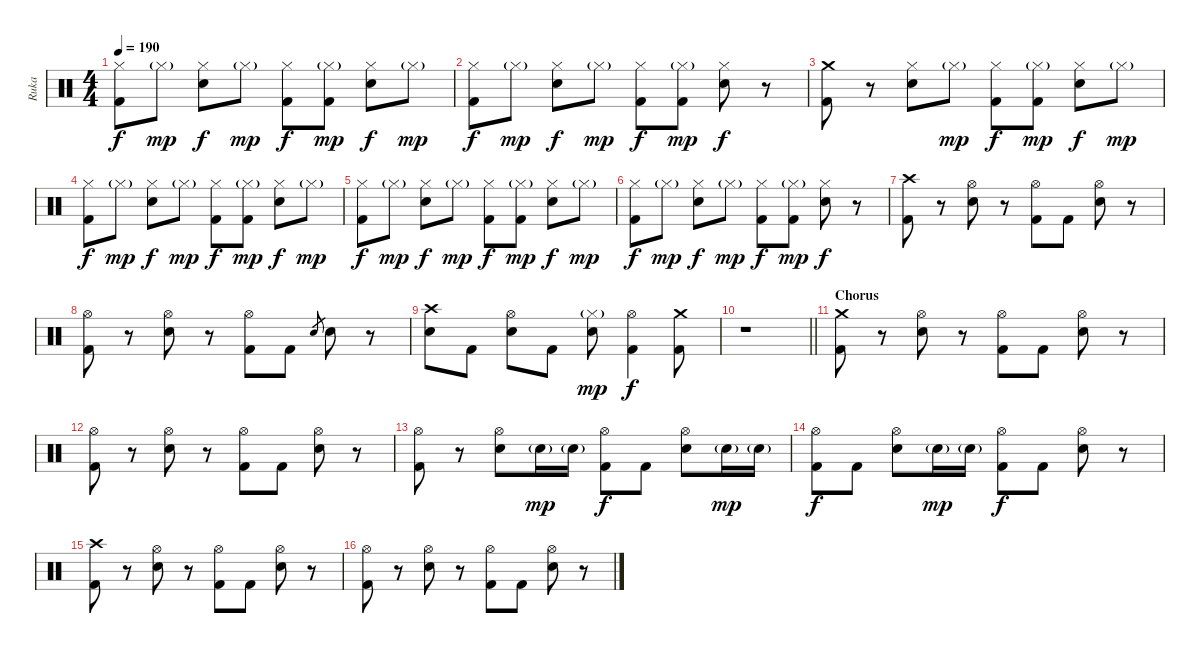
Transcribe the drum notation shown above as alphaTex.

\track ("Ruka " "Ruka ") {instrument percussion}
\staff {score}
\articulation defaults
\ts (4 4)
\tempo 190
\clef neutral
\ks c
("Hi-Hat (closed)" "Kick (hit) 2").8{dy f} "Hi-Hat (closed)"{g}.8{dy mp} ("Hi-Hat (closed)" "Electric Snare (hit)").8{dy f} "Hi-Hat (closed)"{g}.8{dy mp} ("Hi-Hat (closed)" "Kick (hit) 2").8{dy f} ("Hi-Hat (closed)"{g} "Kick (hit) 2").8{dy mp} ("Hi-Hat (closed)" "Electric Snare (hit)").8{dy f} "Hi-Hat (closed)"{g}.8{dy mp} |
("Hi-Hat (closed)" "Kick (hit) 2").8{dy f} "Hi-Hat (closed)"{g}.8{dy mp} ("Hi-Hat (closed)" "Electric Snare (hit)").8{dy f} "Hi-Hat (closed)"{g}.8{dy mp} ("Hi-Hat (closed)" "Kick (hit) 2").8{dy f} ("Hi-Hat (closed)"{g} "Kick (hit) 2").8{dy mp} ("Hi-Hat (closed)" "Electric Snare (hit)").8{dy f} r.8 |
("Crash medium (hit)" "Kick (hit) 2").8 r.8 ("Hi-Hat (closed)" "Electric Snare (hit)").8 "Hi-Hat (closed)"{g}.8{dy mp} ("Hi-Hat (closed)" "Kick (hit) 2").8{dy f} ("Hi-Hat (closed)"{g} "Kick (hit) 2").8{dy mp} ("Hi-Hat (closed)" "Electric Snare (hit)").8{dy f} "Hi-Hat (closed)"{g}.8{dy mp} |
("Hi-Hat (closed)" "Kick (hit) 2").8{dy f} "Hi-Hat (closed)"{g}.8{dy mp} ("Hi-Hat (closed)" "Electric Snare (hit)").8{dy f} "Hi-Hat (closed)"{g}.8{dy mp} ("Hi-Hat (closed)" "Kick (hit) 2").8{dy f} ("Hi-Hat (closed)"{g} "Kick (hit) 2").8{dy mp} ("Hi-Hat (closed)" "Electric Snare (hit)").8{dy f} "Hi-Hat (closed)"{g}.8{dy mp} |
("Hi-Hat (closed)" "Kick (hit) 2").8{dy f} "Hi-Hat (closed)"{g}.8{dy mp} ("Hi-Hat (closed)" "Electric Snare (hit)").8{dy f} "Hi-Hat (closed)"{g}.8{dy mp} ("Hi-Hat (closed)" "Kick (hit) 2").8{dy f} ("Hi-Hat (closed)"{g} "Kick (hit) 2").8{dy mp} ("Hi-Hat (closed)" "Electric Snare (hit)").8{dy f} "Hi-Hat (closed)"{g}.8{dy mp} |
("Hi-Hat (closed)" "Kick (hit) 2").8{dy f} "Hi-Hat (closed)"{g}.8{dy mp} ("Hi-Hat (closed)" "Electric Snare (hit)").8{dy f} "Hi-Hat (closed)"{g}.8{dy mp} ("Hi-Hat (closed)" "Kick (hit) 2").8{dy f} ("Hi-Hat (closed)"{g} "Kick (hit) 2").8{dy mp} ("Hi-Hat (closed)" "Electric Snare (hit)").8{dy f} r.8 |
("Crash high (hit)" "Kick (hit) 2").8 r.8 ("Hi-Hat (open)" "Electric Snare (hit)").8 r.8 ("Hi-Hat (open)" "Kick (hit) 2").8 "Kick (hit) 2".8 ("Hi-Hat (open)" "Electric Snare (hit)").8 r.8 |
("Hi-Hat (open)" "Kick (hit) 2").8 r.8 ("Hi-Hat (open)" "Electric Snare (hit)").8 r.8 ("Hi-Hat (open)" "Kick (hit) 2").8 "Kick (hit) 2".8 "Electric Snare (hit)".8{gr} "Electric Snare (hit)".8 r.8 |
("Crash high (hit)" "Electric Snare (hit)").8 "Kick (hit) 2".8 ("Hi-Hat (open)" "Electric Snare (hit)").8 "Kick (hit) 2".8 ("Hi-Hat (closed)"{g} "Electric Snare (hit)").8{dy mp} ("Hi-Hat (open)" "Kick (hit) 2").4{dy f} ("Crash medium (hit)" "Kick (hit) 2").8 |
\barLineRight lightlight
r.1 |
\section ("" "Chorus")
("Crash medium (hit)" "Kick (hit) 2").8 r.8 ("Hi-Hat (open)" "Electric Snare (hit)").8 r.8 ("Hi-Hat (open)" "Kick (hit) 2").8 "Kick (hit) 2".8 ("Hi-Hat (open)" "Electric Snare (hit)").8 r.8 |
("Hi-Hat (open)" "Kick (hit) 2").8 r.8 ("Hi-Hat (open)" "Electric Snare (hit)").8 r.8 ("Hi-Hat (open)" "Kick (hit) 2").8 "Kick (hit) 2".8 ("Hi-Hat (open)" "Electric Snare (hit)").8 r.8 |
("Hi-Hat (open)" "Kick (hit) 2").8 r.8 ("Hi-Hat (open)" "Electric Snare (hit)").8 "Electric Snare (hit)"{g}.16{dy mp} "Electric Snare (hit)"{g}.16 ("Hi-Hat (open)" "Kick (hit) 2").8{dy f} "Kick (hit) 2".8 ("Hi-Hat (open)" "Electric Snare (hit)").8 "Electric Snare (hit)"{g}.16{dy mp} "Electric Snare (hit)"{g}.16 |
("Hi-Hat (open)" "Kick (hit) 2").8{dy f} "Kick (hit) 2".8 ("Hi-Hat (open)" "Electric Snare (hit)").8 "Electric Snare (hit)"{g}.16{dy mp} "Electric Snare (hit)"{g}.16 ("Hi-Hat (open)" "Kick (hit) 2").8{dy f} "Kick (hit) 2".8 ("Hi-Hat (open)" "Electric Snare (hit)").8 r.8 |
("Crash high (hit)" "Kick (hit) 2").8 r.8 ("Hi-Hat (open)" "Electric Snare (hit)").8 r.8 ("Hi-Hat (open)" "Kick (hit) 2").8 "Kick (hit) 2".8 ("Hi-Hat (open)" "Electric Snare (hit)").8 r.8 |
("Hi-Hat (open)" "Kick (hit) 2").8 r.8 ("Hi-Hat (open)" "Electric Snare (hit)").8 r.8 ("Hi-Hat (open)" "Kick (hit) 2").8 "Kick (hit) 2".8 ("Hi-Hat (open)" "Electric Snare (hit)").8 r.8
